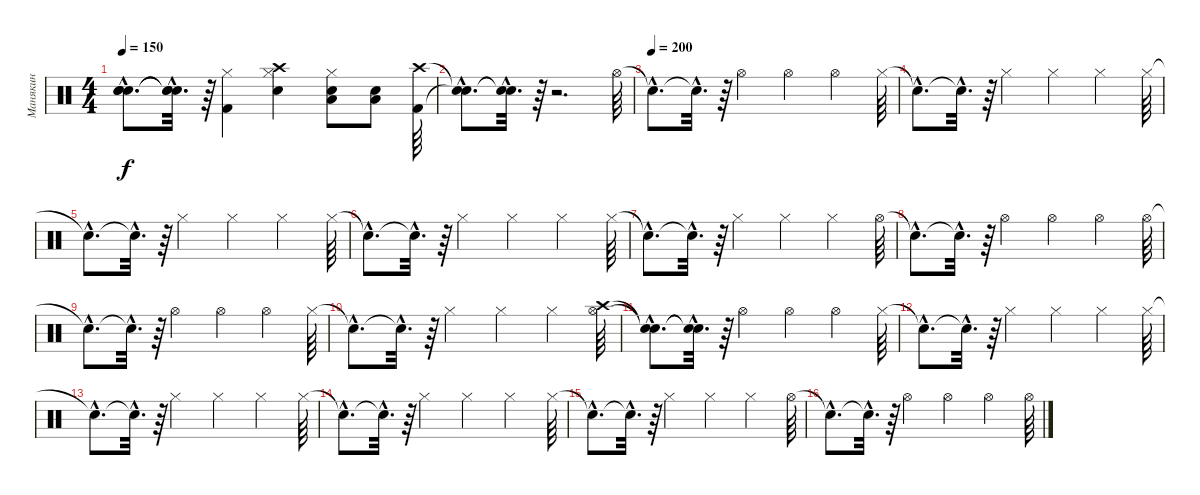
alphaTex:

\track ("Манякин" "Манякин") {instrument percussion}
\staff {score}
\articulation defaults
\ts (4 4)
\tempo 150
\clef neutral
\ks c
("Snare (hit)"{hac t} "Snare (hit)"{hac t} "Snare (hit)"{hac t}).8{d dy f} ("Snare (hit)"{hac t} "Snare (hit)"{hac t} "Snare (hit)"{hac t}).32{d} r.64 ("Hi-Hat (closed)" "Kick (hit) 2").4 ("Crash high (hit)" "Hi-Hat (closed)" "Snare (hit) 2").4 ("Low Floor Tom (hit)" "Snare (hit) 2" "Hi-Hat (closed)").8 ("Low Floor Tom (hit)" "Snare (hit) 2").8 ("Kick (hit) 2" "Crash high (hit)").64 |
("Snare (hit)"{hac t} "Snare (hit)"{hac t}).8{d} ("Snare (hit)"{hac t} "Snare (hit)"{hac t}).32{d} r.64 r.2{d} "Hi-Hat (open)".64 |
\tempo (200)
"Snare (hit)"{hac t}.8{d} "Snare (hit)"{hac t}.32{d} r.64 "Hi-Hat (open)".4 "Hi-Hat (open)".4 "Hi-Hat (open)".4 "Hi-Hat (closed)".64 |
"Snare (hit)"{hac t}.8{d} "Snare (hit)"{hac t}.32{d} r.64 "Hi-Hat (closed)".4 "Hi-Hat (closed)".4 "Hi-Hat (closed)".4 "Hi-Hat (closed)".64 |
"Snare (hit)"{hac t}.8{d} "Snare (hit)"{hac t}.32{d} r.64 "Hi-Hat (closed)".4 "Hi-Hat (closed)".4 "Hi-Hat (closed)".4 "Hi-Hat (closed)".64 |
"Snare (hit)"{hac t}.8{d} "Snare (hit)"{hac t}.32{d} r.64 "Hi-Hat (closed)".4 "Hi-Hat (closed)".4 "Hi-Hat (closed)".4 "Hi-Hat (closed)".64 |
"Snare (hit)"{hac t}.8{d} "Snare (hit)"{hac t}.32{d} r.64 "Hi-Hat (closed)".4 "Hi-Hat (closed)".4 "Hi-Hat (closed)".4 "Hi-Hat (open)".64 |
"Snare (hit)"{hac t}.8{d} "Snare (hit)"{hac t}.32{d} r.64 "Hi-Hat (open)".4 "Hi-Hat (open)".4 "Hi-Hat (open)".4 "Hi-Hat (open)".64 |
"Snare (hit)"{hac t}.8{d} "Snare (hit)"{hac t}.32{d} r.64 "Hi-Hat (open)".4 "Hi-Hat (open)".4 "Hi-Hat (open)".4 "Hi-Hat (closed)".64 |
"Snare (hit)"{hac t}.8{d} "Snare (hit)"{hac t}.32{d} r.64 "Hi-Hat (closed)".4 "Hi-Hat (closed)".4 "Hi-Hat (closed)".4 ("Crash high (hit)" "Hi-Hat (open)").64 |
("Snare (hit)"{hac t} "Snare (hit)"{hac t}).8{d} ("Snare (hit)"{hac t} "Snare (hit)"{hac t}).32{d} r.64 "Hi-Hat (open)".4 "Hi-Hat (open)".4 "Hi-Hat (open)".4 "Hi-Hat (closed)".64 |
"Snare (hit)"{hac t}.8{d} "Snare (hit)"{hac t}.32{d} r.64 "Hi-Hat (closed)".4 "Hi-Hat (closed)".4 "Hi-Hat (closed)".4 "Hi-Hat (closed)".64 |
"Snare (hit)"{hac t}.8{d} "Snare (hit)"{hac t}.32{d} r.64 "Hi-Hat (closed)".4 "Hi-Hat (closed)".4 "Hi-Hat (closed)".4 "Hi-Hat (closed)".64 |
"Snare (hit)"{hac t}.8{d} "Snare (hit)"{hac t}.32{d} r.64 "Hi-Hat (closed)".4 "Hi-Hat (closed)".4 "Hi-Hat (closed)".4 "Hi-Hat (closed)".64 |
"Snare (hit)"{hac t}.8{d} "Snare (hit)"{hac t}.32{d} r.64 "Hi-Hat (closed)".4 "Hi-Hat (closed)".4 "Hi-Hat (closed)".4 "Hi-Hat (open)".64 |
"Snare (hit)"{hac t}.8{d} "Snare (hit)"{hac t}.32{d} r.64 "Hi-Hat (open)".4 "Hi-Hat (open)".4 "Hi-Hat (open)".4 "Hi-Hat (open)".64
